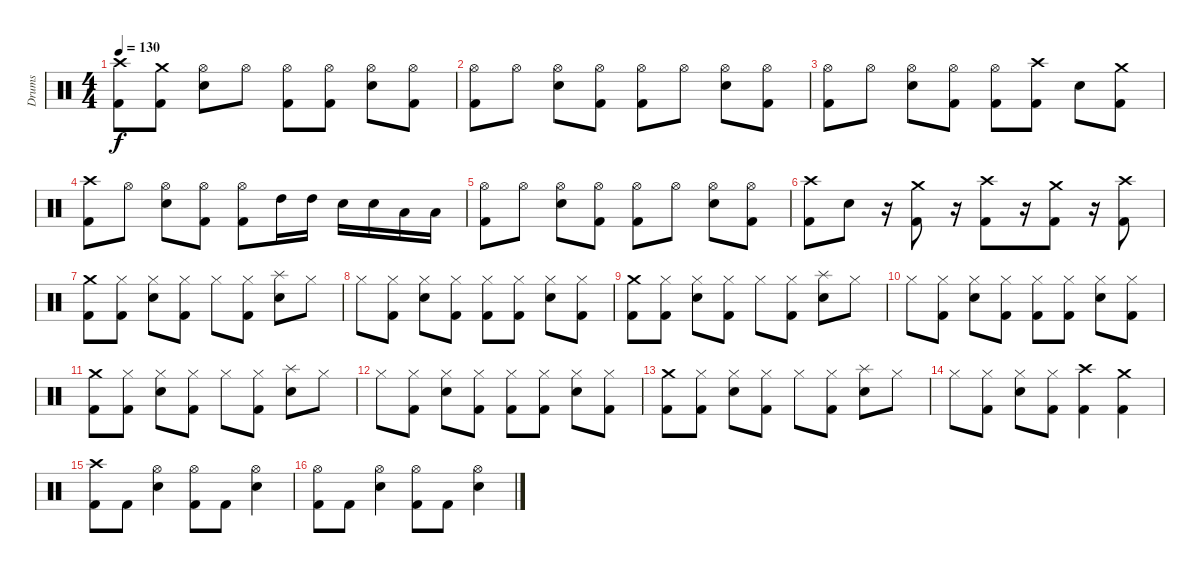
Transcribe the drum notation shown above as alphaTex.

\track ("Drums" "Drums") {instrument percussion}
\staff {score}
\articulation defaults
\ts (4 4)
\tempo 130
\clef neutral
\ks c
("Crash high (hit)" "Kick (hit) 2").8{dy f} ("Crash medium (hit)" "Kick (hit) 2").8 ("Hi-Hat (open)" "Electric Snare (hit)").8 "Hi-Hat (open)".8 ("Hi-Hat (open)" "Kick (hit) 2").8 ("Hi-Hat (open)" "Kick (hit) 2").8 ("Hi-Hat (open)" "Electric Snare (hit)").8 ("Hi-Hat (open)" "Kick (hit) 2").8 |
("Hi-Hat (open)" "Kick (hit) 2").8 "Hi-Hat (open)".8 ("Hi-Hat (open)" "Electric Snare (hit)").8 ("Hi-Hat (open)" "Kick (hit) 2").8 ("Hi-Hat (open)" "Kick (hit) 2").8 "Hi-Hat (open)".8 ("Hi-Hat (open)" "Electric Snare (hit)").8 ("Hi-Hat (open)" "Kick (hit) 2").8 |
("Hi-Hat (open)" "Kick (hit) 2").8 "Hi-Hat (open)".8 ("Hi-Hat (open)" "Electric Snare (hit)").8 ("Hi-Hat (open)" "Kick (hit) 2").8 ("Hi-Hat (open)" "Kick (hit) 2").8 ("Crash high (hit)" "Kick (hit) 2").8 "Electric Snare (hit)".8 ("Crash medium (hit)" "Kick (hit) 2").8 |
("Crash high (hit)" "Kick (hit) 2").8 "Hi-Hat (open)".8 ("Hi-Hat (open)" "Electric Snare (hit)").8 ("Hi-Hat (open)" "Kick (hit) 2").8 ("Hi-Hat (open)" "Kick (hit) 2").8 "High Tom (hit)".16 "High Tom (hit)".16 "Electric Snare (hit)".16 "Electric Snare (hit)".16 "Low Tom (hit)".16 "Low Tom (hit)".16 |
("Hi-Hat (open)" "Kick (hit) 2").8 "Hi-Hat (open)".8 ("Hi-Hat (open)" "Electric Snare (hit)").8 ("Hi-Hat (open)" "Kick (hit) 2").8 ("Hi-Hat (open)" "Kick (hit) 2").8 "Hi-Hat (open)".8 ("Hi-Hat (open)" "Electric Snare (hit)").8 ("Hi-Hat (open)" "Kick (hit) 2").8 |
("Crash high (hit)" "Kick (hit) 2").8 "Electric Snare (hit)".8 r.16 ("Crash medium (hit)" "Kick (hit) 2").8 r.16 ("Crash high (hit)" "Kick (hit) 2").8 r.16 ("Crash medium (hit)" "Kick (hit) 2").8 r.16 ("Crash high (hit)" "Kick (hit) 2").8 |
("Crash medium (hit)" "Kick (hit) 2").8 ("Hi-Hat (closed)" "Kick (hit) 2").8 ("Hi-Hat (closed)" "Electric Snare (hit)").8 ("Hi-Hat (closed)" "Kick (hit) 2").8 "Hi-Hat (closed)".8 ("Hi-Hat (closed)" "Kick (hit) 2").8 ("Splash (hit)" "Electric Snare (hit)").8 "Hi-Hat (closed)".8 |
"Hi-Hat (closed)".8 ("Hi-Hat (closed)" "Kick (hit) 2").8 ("Hi-Hat (closed)" "Electric Snare (hit)").8 ("Hi-Hat (closed)" "Kick (hit) 2").8 ("Hi-Hat (closed)" "Kick (hit) 2").8 ("Hi-Hat (closed)" "Kick (hit) 2").8 ("Hi-Hat (closed)" "Electric Snare (hit)").8 ("Hi-Hat (closed)" "Kick (hit) 2").8 |
("Crash medium (hit)" "Kick (hit) 2").8 ("Hi-Hat (closed)" "Kick (hit) 2").8 ("Hi-Hat (closed)" "Electric Snare (hit)").8 ("Hi-Hat (closed)" "Kick (hit) 2").8 "Hi-Hat (closed)".8 ("Hi-Hat (closed)" "Kick (hit) 2").8 ("Splash (hit)" "Electric Snare (hit)").8 "Hi-Hat (closed)".8 |
"Hi-Hat (closed)".8 ("Hi-Hat (closed)" "Kick (hit) 2").8 ("Hi-Hat (closed)" "Electric Snare (hit)").8 ("Hi-Hat (closed)" "Kick (hit) 2").8 ("Hi-Hat (closed)" "Kick (hit) 2").8 ("Hi-Hat (closed)" "Kick (hit) 2").8 ("Hi-Hat (closed)" "Electric Snare (hit)").8 ("Hi-Hat (closed)" "Kick (hit) 2").8 |
("Crash medium (hit)" "Kick (hit) 2").8 ("Hi-Hat (closed)" "Kick (hit) 2").8 ("Hi-Hat (closed)" "Electric Snare (hit)").8 ("Hi-Hat (closed)" "Kick (hit) 2").8 "Hi-Hat (closed)".8 ("Hi-Hat (closed)" "Kick (hit) 2").8 ("Splash (hit)" "Electric Snare (hit)").8 "Hi-Hat (closed)".8 |
"Hi-Hat (closed)".8 ("Hi-Hat (closed)" "Kick (hit) 2").8 ("Hi-Hat (closed)" "Electric Snare (hit)").8 ("Hi-Hat (closed)" "Kick (hit) 2").8 ("Hi-Hat (closed)" "Kick (hit) 2").8 ("Hi-Hat (closed)" "Kick (hit) 2").8 ("Hi-Hat (closed)" "Electric Snare (hit)").8 ("Hi-Hat (closed)" "Kick (hit) 2").8 |
("Crash medium (hit)" "Kick (hit) 2").8 ("Hi-Hat (closed)" "Kick (hit) 2").8 ("Hi-Hat (closed)" "Electric Snare (hit)").8 ("Hi-Hat (closed)" "Kick (hit) 2").8 "Hi-Hat (closed)".8 ("Hi-Hat (closed)" "Kick (hit) 2").8 ("Splash (hit)" "Electric Snare (hit)").8 "Hi-Hat (closed)".8 |
"Hi-Hat (closed)".8 ("Hi-Hat (closed)" "Kick (hit) 2").8 ("Hi-Hat (closed)" "Electric Snare (hit)").8 ("Hi-Hat (closed)" "Kick (hit) 2").8 ("Crash high (hit)" "Kick (hit) 2").4 ("Crash medium (hit)" "Kick (hit) 2").4 |
("Crash high (hit)" "Kick (hit) 2").8 "Kick (hit) 2".8 ("Hi-Hat (open)" "Electric Snare (hit)").4 ("Hi-Hat (open)" "Kick (hit) 2").8 "Kick (hit) 2".8 ("Hi-Hat (open)" "Electric Snare (hit)").4 |
("Hi-Hat (open)" "Kick (hit) 2").8 "Kick (hit) 2".8 ("Hi-Hat (open)" "Electric Snare (hit)").4 ("Hi-Hat (open)" "Kick (hit) 2").8 "Kick (hit) 2".8 ("Hi-Hat (open)" "Electric Snare (hit)").4
